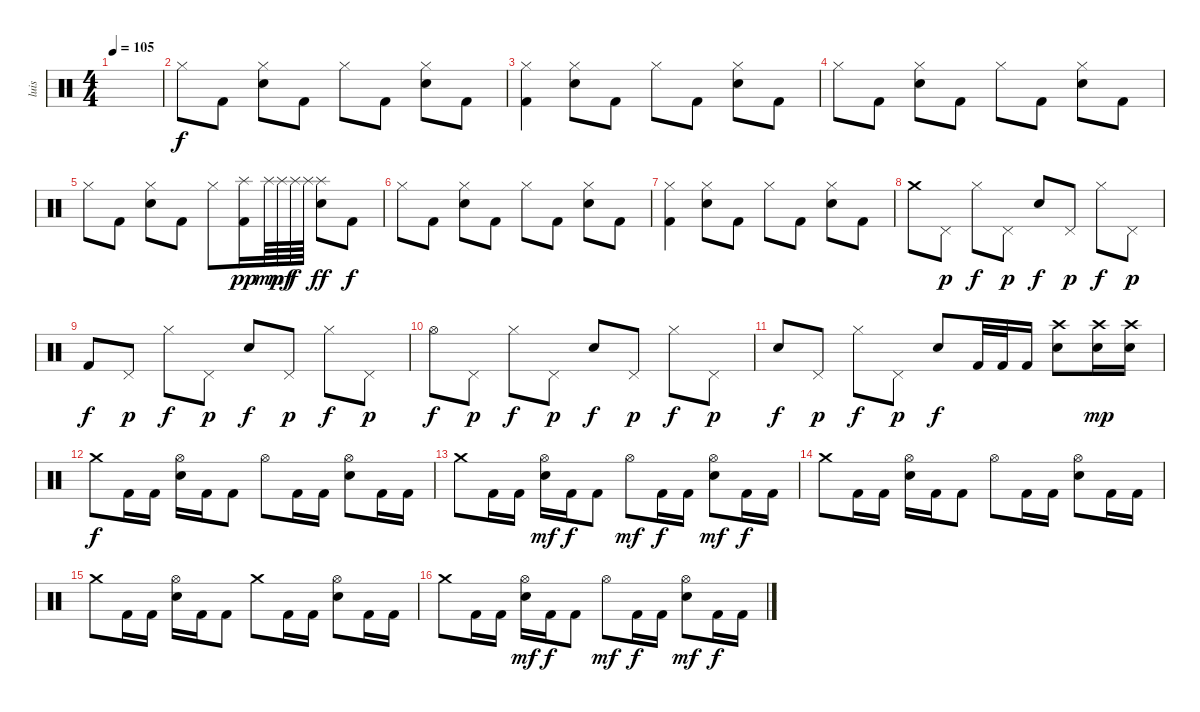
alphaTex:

\track ("luis" "luis") {instrument percussion}
\staff {score}
\articulation defaults
\ts (4 4)
\tempo 105
\clef neutral
\ks c
|
"Hi-Hat (closed)".8 "Kick (hit) 2".8 ("Electric Snare (hit)" "Hi-Hat (closed)").8 "Kick (hit) 2".8 "Hi-Hat (closed)".8 "Kick (hit) 2".8 ("Electric Snare (hit)" "Hi-Hat (closed)").8 "Kick (hit) 2".8 |
("Hi-Hat (closed)" "Kick (hit) 2").4 ("Electric Snare (hit)" "Hi-Hat (closed)").8 "Kick (hit) 2".8 "Hi-Hat (closed)".8 "Kick (hit) 2".8 ("Electric Snare (hit)" "Hi-Hat (closed)").8 "Kick (hit) 2".8 |
"Hi-Hat (closed)".8 "Kick (hit) 2".8 ("Electric Snare (hit)" "Hi-Hat (closed)").8 "Kick (hit) 2".8 "Hi-Hat (closed)".8 "Kick (hit) 2".8 ("Electric Snare (hit)" "Hi-Hat (closed)").8 "Kick (hit) 2".8 |
"Hi-Hat (closed)".8 "Kick (hit) 2".8 ("Electric Snare (hit)" "Hi-Hat (closed)").8 "Kick (hit) 2".8 "Hi-Hat (closed)".8 ("Splash (hit)" "Kick (hit) 2").16{dy pp} "Splash (hit)".64{dy mp} "Splash (hit)".64{dy mf} "Splash (hit)".64{dy f} "Splash (hit)".64 ("Splash (hit)" "Electric Snare (hit)").8{dy ff} "Kick (hit) 2".8{dy f} |
"Hi-Hat (closed)".8 "Kick (hit) 2".8 ("Electric Snare (hit)" "Hi-Hat (closed)").8 "Kick (hit) 2".8 "Hi-Hat (closed)".8 "Kick (hit) 2".8 ("Electric Snare (hit)" "Hi-Hat (closed)").8 "Kick (hit) 2".8 |
("Hi-Hat (closed)" "Kick (hit) 2").4 ("Electric Snare (hit)" "Hi-Hat (closed)").8 "Kick (hit) 2".8 "Hi-Hat (closed)".8 "Kick (hit) 2".8 ("Electric Snare (hit)" "Hi-Hat (closed)").8 "Kick (hit) 2".8 |
"Crash medium (hit)".8 "Pedal Hi-Hat (hit)".8{dy p} "Hi-Hat (closed)".8{dy f} "Pedal Hi-Hat (hit)".8{dy p} "Electric Snare (hit)".8{dy f} "Pedal Hi-Hat (hit)".8{dy p} "Hi-Hat (closed)".8{dy f} "Pedal Hi-Hat (hit)".8{dy p} |
"Kick (hit) 2".8{dy f} "Pedal Hi-Hat (hit)".8{dy p} "Hi-Hat (closed)".8{dy f} "Pedal Hi-Hat (hit)".8{dy p} "Electric Snare (hit)".8{dy f} "Pedal Hi-Hat (hit)".8{dy p} "Hi-Hat (closed)".8{dy f} "Pedal Hi-Hat (hit)".8{dy p} |
"Hi-Hat (open)".8{dy f} "Pedal Hi-Hat (hit)".8{dy p} "Hi-Hat (closed)".8{dy f} "Pedal Hi-Hat (hit)".8{dy p} "Electric Snare (hit)".8{dy f} "Pedal Hi-Hat (hit)".8{dy p} "Hi-Hat (closed)".8{dy f} "Pedal Hi-Hat (hit)".8{dy p} |
"Electric Snare (hit)".8{dy f} "Pedal Hi-Hat (hit)".8{dy p} "Hi-Hat (closed)".8{dy f} "Pedal Hi-Hat (hit)".8{dy p} "Electric Snare (hit)".8{dy f} "Kick (hit) 2".32 "Kick (hit) 2".32 "Kick (hit) 2".16 ("Crash high (hit)" "Electric Snare (hit)").8 ("Crash high (hit)" "Electric Snare (hit)").16{dy mp} ("Crash high (hit)" "Electric Snare (hit)").16 |
"Crash medium (hit)".8{dy f} "Kick (hit) 2".16 "Kick (hit) 2".16 ("Hi-Hat (open)" "Electric Snare (hit)").16 "Kick (hit) 2".16 "Kick (hit) 2".8 "Hi-Hat (open)".8 "Kick (hit) 2".16 "Kick (hit) 2".16 ("Hi-Hat (open)" "Electric Snare (hit)").8 "Kick (hit) 2".16 "Kick (hit) 2".16 |
"Crash medium (hit)".8 "Kick (hit) 2".16 "Kick (hit) 2".16 ("Hi-Hat (open)" "Electric Snare (hit)").16{dy mf} "Kick (hit) 2".16{dy f} "Kick (hit) 2".8 "Hi-Hat (open)".8{dy mf} "Kick (hit) 2".16{dy f} "Kick (hit) 2".16 ("Hi-Hat (open)" "Electric Snare (hit)").8{dy mf} "Kick (hit) 2".16{dy f} "Kick (hit) 2".16 |
"Crash medium (hit)".8 "Kick (hit) 2".16 "Kick (hit) 2".16 ("Hi-Hat (open)" "Electric Snare (hit)").16 "Kick (hit) 2".16 "Kick (hit) 2".8 "Hi-Hat (open)".8 "Kick (hit) 2".16 "Kick (hit) 2".16 ("Hi-Hat (open)" "Electric Snare (hit)").8 "Kick (hit) 2".16 "Kick (hit) 2".16 |
"Crash medium (hit)".8 "Kick (hit) 2".16 "Kick (hit) 2".16 ("Hi-Hat (open)" "Electric Snare (hit)").16 "Kick (hit) 2".16 "Kick (hit) 2".8 "Crash medium (hit)".8 "Kick (hit) 2".16 "Kick (hit) 2".16 ("Hi-Hat (open)" "Electric Snare (hit)").8 "Kick (hit) 2".16 "Kick (hit) 2".16 |
"Crash medium (hit)".8 "Kick (hit) 2".16 "Kick (hit) 2".16 ("Hi-Hat (open)" "Electric Snare (hit)").16{dy mf} "Kick (hit) 2".16{dy f} "Kick (hit) 2".8 "Hi-Hat (open)".8{dy mf} "Kick (hit) 2".16{dy f} "Kick (hit) 2".16 ("Hi-Hat (open)" "Electric Snare (hit)").8{dy mf} "Kick (hit) 2".16{dy f} "Kick (hit) 2".16
